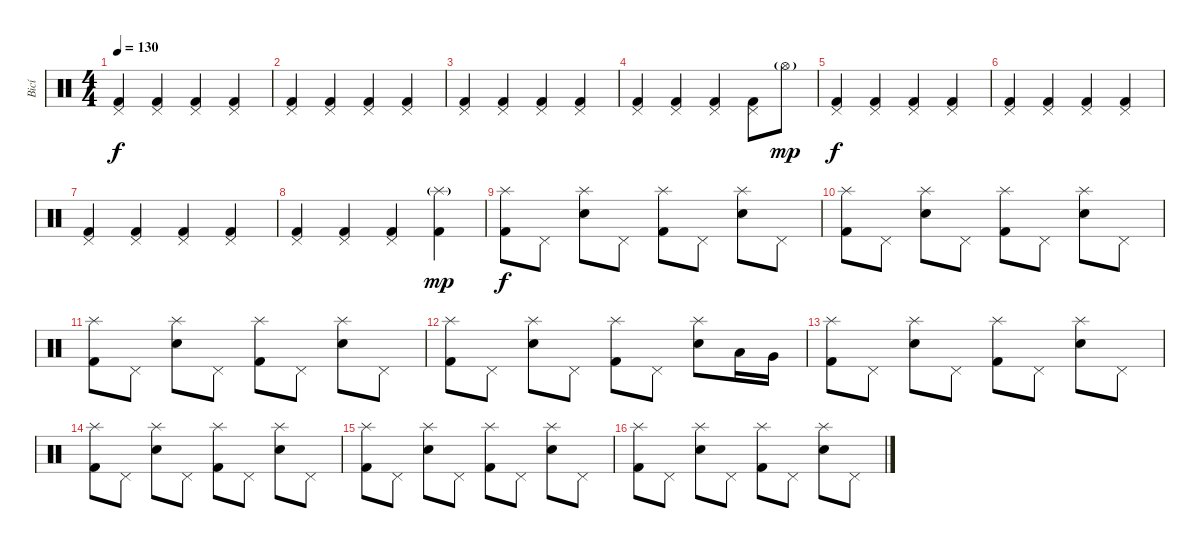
\track ("Bicí" "Bicí") {instrument percussion}
\staff {score}
\articulation defaults
\ts (4 4)
\tempo 130
\clef neutral
\ks c
("Pedal Hi-Hat (hit)" "Kick (hit) 2").4{dy f} ("Pedal Hi-Hat (hit)" "Kick (hit) 2").4 ("Pedal Hi-Hat (hit)" "Kick (hit) 2").4 ("Pedal Hi-Hat (hit)" "Kick (hit) 2").4 |
("Pedal Hi-Hat (hit)" "Kick (hit) 2").4 ("Pedal Hi-Hat (hit)" "Kick (hit) 2").4 ("Pedal Hi-Hat (hit)" "Kick (hit) 2").4 ("Pedal Hi-Hat (hit)" "Kick (hit) 2").4 |
("Pedal Hi-Hat (hit)" "Kick (hit) 2").4 ("Pedal Hi-Hat (hit)" "Kick (hit) 2").4 ("Pedal Hi-Hat (hit)" "Kick (hit) 2").4 ("Pedal Hi-Hat (hit)" "Kick (hit) 2").4 |
("Pedal Hi-Hat (hit)" "Kick (hit) 2").4 ("Pedal Hi-Hat (hit)" "Kick (hit) 2").4 ("Pedal Hi-Hat (hit)" "Kick (hit) 2").4 ("Pedal Hi-Hat (hit)" "Kick (hit) 2").8 "Hi-Hat (open)"{g}.8{dy mp} |
("Pedal Hi-Hat (hit)" "Kick (hit) 2").4{dy f} ("Pedal Hi-Hat (hit)" "Kick (hit) 2").4 ("Pedal Hi-Hat (hit)" "Kick (hit) 2").4 ("Pedal Hi-Hat (hit)" "Kick (hit) 2").4 |
("Pedal Hi-Hat (hit)" "Kick (hit) 2").4 ("Pedal Hi-Hat (hit)" "Kick (hit) 2").4 ("Pedal Hi-Hat (hit)" "Kick (hit) 2").4 ("Pedal Hi-Hat (hit)" "Kick (hit) 2").4 |
("Pedal Hi-Hat (hit)" "Kick (hit) 2").4 ("Pedal Hi-Hat (hit)" "Kick (hit) 2").4 ("Pedal Hi-Hat (hit)" "Kick (hit) 2").4 ("Pedal Hi-Hat (hit)" "Kick (hit) 2").4 |
("Pedal Hi-Hat (hit)" "Kick (hit) 2").4 ("Pedal Hi-Hat (hit)" "Kick (hit) 2").4 ("Pedal Hi-Hat (hit)" "Kick (hit) 2").4 ("Splash (hit)"{g} "Kick (hit) 2").4{dy mp} |
("Splash (hit)" "Kick (hit) 2").8{dy f} "Pedal Hi-Hat (hit)".8 ("Splash (hit)" "Electric Snare (hit)").8 "Pedal Hi-Hat (hit)".8 ("Splash (hit)" "Kick (hit) 2").8 "Pedal Hi-Hat (hit)".8 ("Splash (hit)" "Electric Snare (hit)").8 "Pedal Hi-Hat (hit)".8 |
("Splash (hit)" "Kick (hit) 2").8 "Pedal Hi-Hat (hit)".8 ("Splash (hit)" "Electric Snare (hit)").8 "Pedal Hi-Hat (hit)".8 ("Splash (hit)" "Kick (hit) 2").8 "Pedal Hi-Hat (hit)".8 ("Splash (hit)" "Electric Snare (hit)").8 "Pedal Hi-Hat (hit)".8 |
("Splash (hit)" "Kick (hit) 2").8 "Pedal Hi-Hat (hit)".8 ("Splash (hit)" "Electric Snare (hit)").8 "Pedal Hi-Hat (hit)".8 ("Splash (hit)" "Kick (hit) 2").8 "Pedal Hi-Hat (hit)".8 ("Splash (hit)" "Electric Snare (hit)").8 "Pedal Hi-Hat (hit)".8 |
("Splash (hit)" "Kick (hit) 2").8 "Pedal Hi-Hat (hit)".8 ("Splash (hit)" "Electric Snare (hit)").8 "Pedal Hi-Hat (hit)".8 ("Splash (hit)" "Kick (hit) 2").8 "Pedal Hi-Hat (hit)".8 ("Splash (hit)" "Electric Snare (hit)").8 "Low Tom (hit)".16 "Very Low Tom (hit)".16 |
("Splash (hit)" "Kick (hit) 2").8 "Pedal Hi-Hat (hit)".8 ("Splash (hit)" "Electric Snare (hit)").8 "Pedal Hi-Hat (hit)".8 ("Splash (hit)" "Kick (hit) 2").8 "Pedal Hi-Hat (hit)".8 ("Splash (hit)" "Electric Snare (hit)").8 "Pedal Hi-Hat (hit)".8 |
("Splash (hit)" "Kick (hit) 2").8 "Pedal Hi-Hat (hit)".8 ("Splash (hit)" "Electric Snare (hit)").8 "Pedal Hi-Hat (hit)".8 ("Splash (hit)" "Kick (hit) 2").8 "Pedal Hi-Hat (hit)".8 ("Splash (hit)" "Electric Snare (hit)").8 "Pedal Hi-Hat (hit)".8 |
("Splash (hit)" "Kick (hit) 2").8 "Pedal Hi-Hat (hit)".8 ("Splash (hit)" "Electric Snare (hit)").8 "Pedal Hi-Hat (hit)".8 ("Splash (hit)" "Kick (hit) 2").8 "Pedal Hi-Hat (hit)".8 ("Splash (hit)" "Electric Snare (hit)").8 "Pedal Hi-Hat (hit)".8 |
("Splash (hit)" "Kick (hit) 2").8 "Pedal Hi-Hat (hit)".8 ("Splash (hit)" "Electric Snare (hit)").8 "Pedal Hi-Hat (hit)".8 ("Splash (hit)" "Kick (hit) 2").8 "Pedal Hi-Hat (hit)".8 ("Splash (hit)" "Electric Snare (hit)").8 "Pedal Hi-Hat (hit)".8
